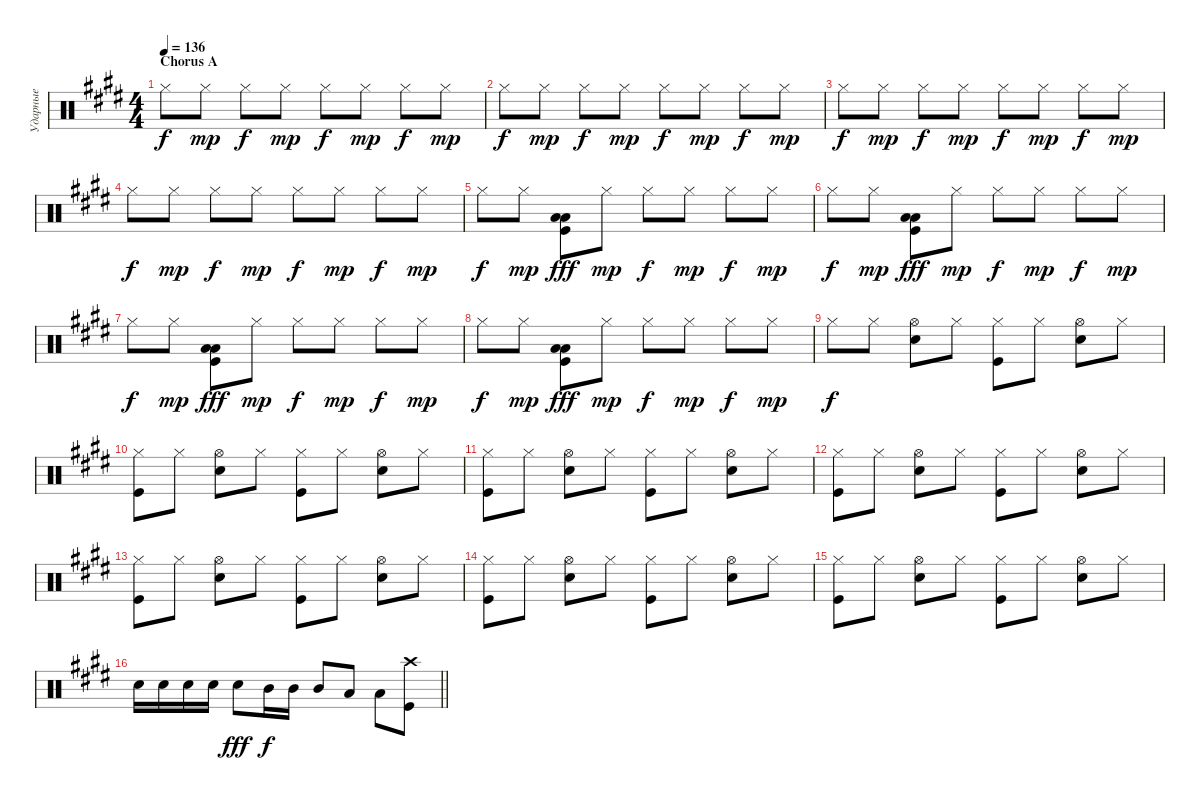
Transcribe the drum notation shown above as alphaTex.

\track ("Ударные" "Ударные") {instrument percussion}
\staff {score}
\articulation defaults
\ts (4 4)
\section ("" "Chorus A")
\tempo 136
\clef neutral
\ks c#minor "Hi-Hat (closed)".8{dy f} "Hi-Hat (closed)".8{dy mp} "Hi-Hat (closed)".8{dy f} "Hi-Hat (closed)".8{dy mp} "Hi-Hat (closed)".8{dy f} "Hi-Hat (closed)".8{dy mp} "Hi-Hat (closed)".8{dy f} "Hi-Hat (closed)".8{dy mp}
|
"Hi-Hat (closed)".8{dy f} "Hi-Hat (closed)".8{dy mp} "Hi-Hat (closed)".8{dy f} "Hi-Hat (closed)".8{dy mp} "Hi-Hat (closed)".8{dy f} "Hi-Hat (closed)".8{dy mp} "Hi-Hat (closed)".8{dy f} "Hi-Hat (closed)".8{dy mp} |
"Hi-Hat (closed)".8{dy f} "Hi-Hat (closed)".8{dy mp} "Hi-Hat (closed)".8{dy f} "Hi-Hat (closed)".8{dy mp} "Hi-Hat (closed)".8{dy f} "Hi-Hat (closed)".8{dy mp} "Hi-Hat (closed)".8{dy f} "Hi-Hat (closed)".8{dy mp} |
"Hi-Hat (closed)".8{dy f} "Hi-Hat (closed)".8{dy mp} "Hi-Hat (closed)".8{dy f} "Hi-Hat (closed)".8{dy mp} "Hi-Hat (closed)".8{dy f} "Hi-Hat (closed)".8{dy mp} "Hi-Hat (closed)".8{dy f} "Hi-Hat (closed)".8{dy mp} |
"Hi-Hat (closed)".8{dy f} "Hi-Hat (closed)".8{dy mp} ("Low Tom (hit)" "Low Tom (hit)" "Kick (hit)").8{bd 480 dy fff} "Hi-Hat (closed)".8{dy mp} "Hi-Hat (closed)".8{dy f} "Hi-Hat (closed)".8{dy mp} "Hi-Hat (closed)".8{dy f} "Hi-Hat (closed)".8{dy mp} |
"Hi-Hat (closed)".8{dy f} "Hi-Hat (closed)".8{dy mp} ("Low Tom (hit)" "Low Tom (hit)" "Kick (hit)").8{bd 480 dy fff} "Hi-Hat (closed)".8{dy mp} "Hi-Hat (closed)".8{dy f} "Hi-Hat (closed)".8{dy mp} "Hi-Hat (closed)".8{dy f} "Hi-Hat (closed)".8{dy mp} |
"Hi-Hat (closed)".8{dy f} "Hi-Hat (closed)".8{dy mp} ("Low Tom (hit)" "Kick (hit)" "Low Tom (hit)").8{bd 480 dy fff} "Hi-Hat (closed)".8{dy mp} "Hi-Hat (closed)".8{dy f} "Hi-Hat (closed)".8{dy mp} "Hi-Hat (closed)".8{dy f} "Hi-Hat (closed)".8{dy mp} |
"Hi-Hat (closed)".8{dy f} "Hi-Hat (closed)".8{dy mp} ("Low Tom (hit)" "Low Tom (hit)" "Kick (hit)").8{bd 480 dy fff} "Hi-Hat (closed)".8{dy mp} "Hi-Hat (closed)".8{dy f} "Hi-Hat (closed)".8{dy mp} "Hi-Hat (closed)".8{dy f} "Hi-Hat (closed)".8{dy mp} |
"Hi-Hat (closed)".8{dy f} "Hi-Hat (closed)".8 ("Hi-Hat (open)" "Snare (hit) 2").8 "Hi-Hat (closed)".8 ("Hi-Hat (closed)" "Kick (hit)").8 "Hi-Hat (closed)".8 ("Hi-Hat (open)" "Snare (hit) 2").8 "Hi-Hat (closed)".8 |
("Hi-Hat (closed)" "Kick (hit)").8 "Hi-Hat (closed)".8 ("Hi-Hat (open)" "Snare (hit) 2").8 "Hi-Hat (closed)".8 ("Hi-Hat (closed)" "Kick (hit)").8 "Hi-Hat (closed)".8 ("Hi-Hat (open)" "Snare (hit) 2").8 "Hi-Hat (closed)".8 |
("Hi-Hat (closed)" "Kick (hit)").8 "Hi-Hat (closed)".8 ("Hi-Hat (open)" "Snare (hit) 2").8 "Hi-Hat (closed)".8 ("Hi-Hat (closed)" "Kick (hit)").8 "Hi-Hat (closed)".8 ("Hi-Hat (open)" "Snare (hit) 2").8 "Hi-Hat (closed)".8 |
("Hi-Hat (closed)" "Kick (hit)").8 "Hi-Hat (closed)".8 ("Hi-Hat (open)" "Snare (hit) 2").8 "Hi-Hat (closed)".8 ("Hi-Hat (closed)" "Kick (hit)").8 "Hi-Hat (closed)".8 ("Hi-Hat (open)" "Snare (hit) 2").8 "Hi-Hat (closed)".8 |
("Hi-Hat (closed)" "Kick (hit)").8 "Hi-Hat (closed)".8 ("Hi-Hat (open)" "Snare (hit) 2").8 "Hi-Hat (closed)".8 ("Hi-Hat (closed)" "Kick (hit)").8 "Hi-Hat (closed)".8 ("Hi-Hat (open)" "Snare (hit) 2").8 "Hi-Hat (closed)".8 |
("Hi-Hat (closed)" "Kick (hit)").8 "Hi-Hat (closed)".8 ("Hi-Hat (open)" "Snare (hit) 2").8 "Hi-Hat (closed)".8 ("Hi-Hat (closed)" "Kick (hit)").8 "Hi-Hat (closed)".8 ("Hi-Hat (open)" "Snare (hit) 2").8 "Hi-Hat (closed)".8 |
("Hi-Hat (closed)" "Kick (hit)").8 "Hi-Hat (closed)".8 ("Hi-Hat (open)" "Snare (hit) 2").8 "Hi-Hat (closed)".8 ("Hi-Hat (closed)" "Kick (hit)").8 "Hi-Hat (closed)".8 ("Hi-Hat (open)" "Snare (hit) 2").8 "Hi-Hat (closed)".8 |
\barLineRight lightlight "Snare (hit) 2".16 "Snare (hit) 2".16 "Snare (hit) 2".16 "Snare (hit) 2".16 "Snare (hit) 2".8{dy fff} "Mid Tom (hit)".16{dy f} "Mid Tom (hit)".16 "Mid Tom (hit)".8 "Low Tom (hit)".8 "Low Tom (hit)".8
("Kick (hit)" "Crash high (hit)").8
